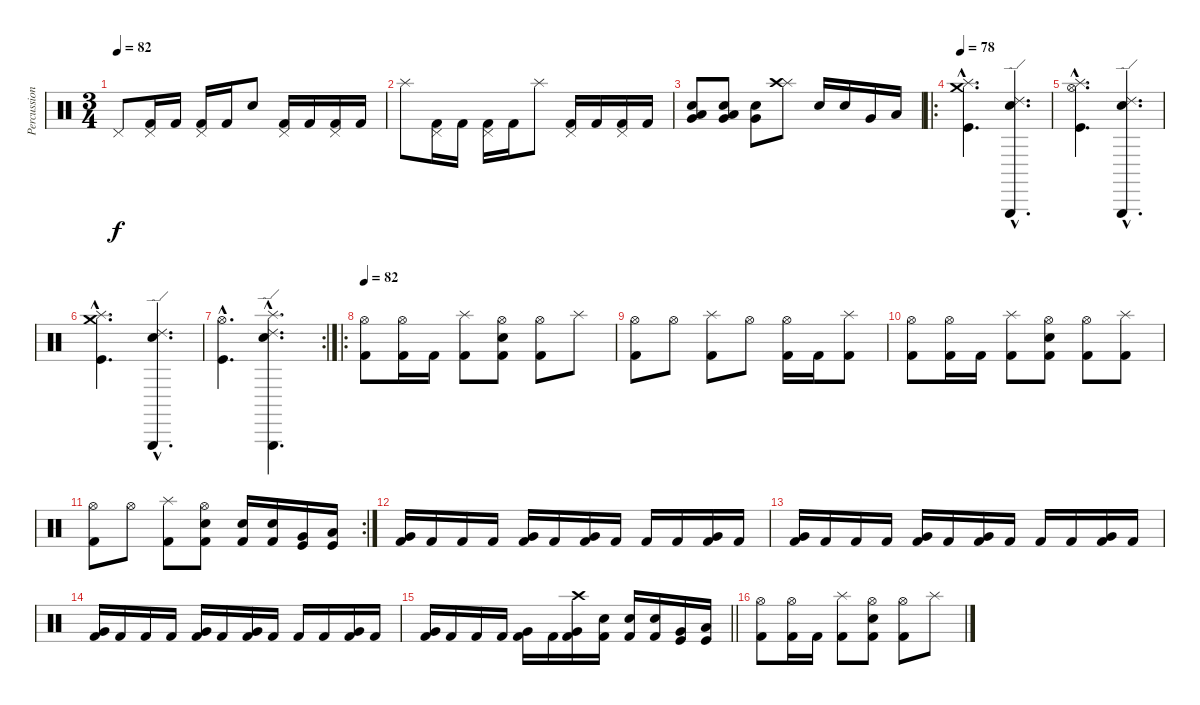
\track ("Percussion" "Percussion") {instrument percussion}
\staff {score}
\articulation defaults
\ts (3 4)
\tempo 82
\clef neutral
\ks c "Pedal Hi-Hat (hit)".8{dy f}
("Pedal Hi-Hat (hit)" "Kick (hit) 2").16 "Kick (hit) 2".16 ("Pedal Hi-Hat (hit)" "Kick (hit) 2").16 "Kick (hit) 2".16 "Electric Snare (hit)".8 ("Pedal Hi-Hat (hit)" "Kick (hit) 2").16 "Kick (hit) 2".16 ("Pedal Hi-Hat (hit)" "Kick (hit) 2").16 "Kick (hit) 2".16 |
"Splash (hit)".8 ("Pedal Hi-Hat (hit)" "Kick (hit) 2").16 "Kick (hit) 2".16 ("Pedal Hi-Hat (hit)" "Kick (hit) 2").16 "Kick (hit) 2".16 "Splash (hit)".8 ("Pedal Hi-Hat (hit)" "Kick (hit) 2").16 "Kick (hit) 2".16 ("Pedal Hi-Hat (hit)" "Kick (hit) 2").16 "Kick (hit) 2".16 |
("Electric Snare (hit)" "Low Floor Tom (hit)" "Very Low Tom (hit)").8 ("Electric Snare (hit)" "Low Floor Tom (hit)" "Very Low Tom (hit)").8 ("Electric Snare (hit)" "Very Low Tom (hit)").8 ("Splash (hit)" "Crash high (hit)").8 "Electric Snare (hit)".16 "Electric Snare (hit)".16 "Very Low Tom (hit)".16 "Low Floor Tom (hit)".16 |
\ro
\tempo 78
("Crash medium (hit)"{hac} "Splash (hit)"{hac} "Kick (hit)"{hac}).4{d} ("Triangle (hit)"{hac} "Ride (edge) 2"{hac} "Snare (hit) 2"{hac}).4{d} |
("Hi-Hat (open)"{hac} "Splash (hit)"{hac} "Kick (hit)"{hac}).4{d} ("Triangle (hit)"{hac} "Ride (edge) 2"{hac} "Snare (hit) 2"{hac}).4{d} |
("Crash medium (hit)"{hac} "Splash (hit)"{hac} "Kick (hit)"{hac}).4{d} ("Triangle (hit)"{hac} "Ride (edge) 2"{hac} "Snare (hit) 2"{hac}).4{d} |
\rc 2
("Hi-Hat (open)"{hac} "Kick (hit)"{hac}).4{d} ("Triangle (hit)"{hac} "Ride (edge) 2"{hac} "Splash (hit)"{hac} "Snare (hit) 2"{hac}).4{d} |
\ro
\tempo 82
("Hi-Hat (open)" "Kick (hit) 2").8 ("Hi-Hat (open)" "Kick (hit) 2").16 "Kick (hit) 2".16 ("Splash (hit)" "Kick (hit) 2").8 ("Hi-Hat (open)" "Electric Snare (hit)" "Kick (hit) 2").8 ("Hi-Hat (open)" "Kick (hit) 2").8 "Splash (hit)".8 |
("Hi-Hat (open)" "Kick (hit) 2").8 "Hi-Hat (open)".8 ("Splash (hit)" "Kick (hit) 2").8 "Hi-Hat (open)".8 ("Hi-Hat (open)" "Kick (hit) 2").16 "Kick (hit) 2".16 ("Splash (hit)" "Kick (hit) 2").8 |
("Hi-Hat (open)" "Kick (hit) 2").8 ("Hi-Hat (open)" "Kick (hit) 2").16 "Kick (hit) 2".16 ("Splash (hit)" "Kick (hit) 2").8 ("Hi-Hat (open)" "Electric Snare (hit)" "Kick (hit) 2").8 ("Hi-Hat (open)" "Kick (hit) 2").8 ("Splash (hit)" "Kick (hit) 2").8 |
\rc 2
("Hi-Hat (open)" "Kick (hit) 2").8 "Hi-Hat (open)".8 ("Splash (hit)" "Kick (hit) 2").8 ("Hi-Hat (open)" "Electric Snare (hit)" "Kick (hit) 2").8 ("Electric Snare (hit)" "Kick (hit) 2").16 ("Electric Snare (hit)" "Kick (hit) 2").16 ("Very Low Tom (hit)" "Kick (hit)").16 ("Low Floor Tom (hit)" "Kick (hit)").16 |
("Very Low Tom (hit)" "Kick (hit) 2").16 "Kick (hit) 2".16 "Kick (hit) 2".16 "Kick (hit) 2".16 ("Very Low Tom (hit)" "Kick (hit) 2").16 "Kick (hit) 2".16 ("Very Low Tom (hit)" "Kick (hit) 2").16 "Kick (hit) 2".16 "Kick (hit) 2".16 "Kick (hit) 2".16 ("Very Low Tom (hit)" "Kick (hit) 2").16 "Kick (hit) 2".16 |
("Very Low Tom (hit)" "Kick (hit) 2").16 "Kick (hit) 2".16 "Kick (hit) 2".16 "Kick (hit) 2".16 ("Very Low Tom (hit)" "Kick (hit) 2").16 "Kick (hit) 2".16 ("Very Low Tom (hit)" "Kick (hit) 2").16 "Kick (hit) 2".16 "Kick (hit) 2".16 "Kick (hit) 2".16 ("Very Low Tom (hit)" "Kick (hit) 2").16 "Kick (hit) 2".16 |
("Very Low Tom (hit)" "Kick (hit) 2").16 "Kick (hit) 2".16 "Kick (hit) 2".16 "Kick (hit) 2".16 ("Very Low Tom (hit)" "Kick (hit) 2").16 "Kick (hit) 2".16 ("Very Low Tom (hit)" "Kick (hit) 2").16 "Kick (hit) 2".16 "Kick (hit) 2".16 "Kick (hit) 2".16 ("Very Low Tom (hit)" "Kick (hit) 2").16 "Kick (hit) 2".16 |
\barLineRight lightlight
("Very Low Tom (hit)" "Kick (hit) 2").16 "Kick (hit) 2".16 "Kick (hit) 2".16 "Kick (hit) 2".16 ("Very Low Tom (hit)" "Kick (hit) 2").16 "Kick (hit) 2".16 ("Crash high (hit)" "Very Low Tom (hit)" "Kick (hit) 2").16 ("Electric Snare (hit)" "Kick (hit) 2").16 ("Electric Snare (hit)" "Kick (hit) 2").16 ("Electric Snare (hit)" "Kick (hit) 2").16 ("Very Low Tom (hit)" "Kick (hit)").16 ("Low Floor Tom (hit)" "Kick (hit)").16 |
("Hi-Hat (open)" "Kick (hit) 2").8 ("Hi-Hat (open)" "Kick (hit) 2").16 "Kick (hit) 2".16 ("Splash (hit)" "Kick (hit) 2").8 ("Hi-Hat (open)" "Electric Snare (hit)" "Kick (hit) 2").8 ("Hi-Hat (open)" "Kick (hit) 2").8 "Splash (hit)".8
